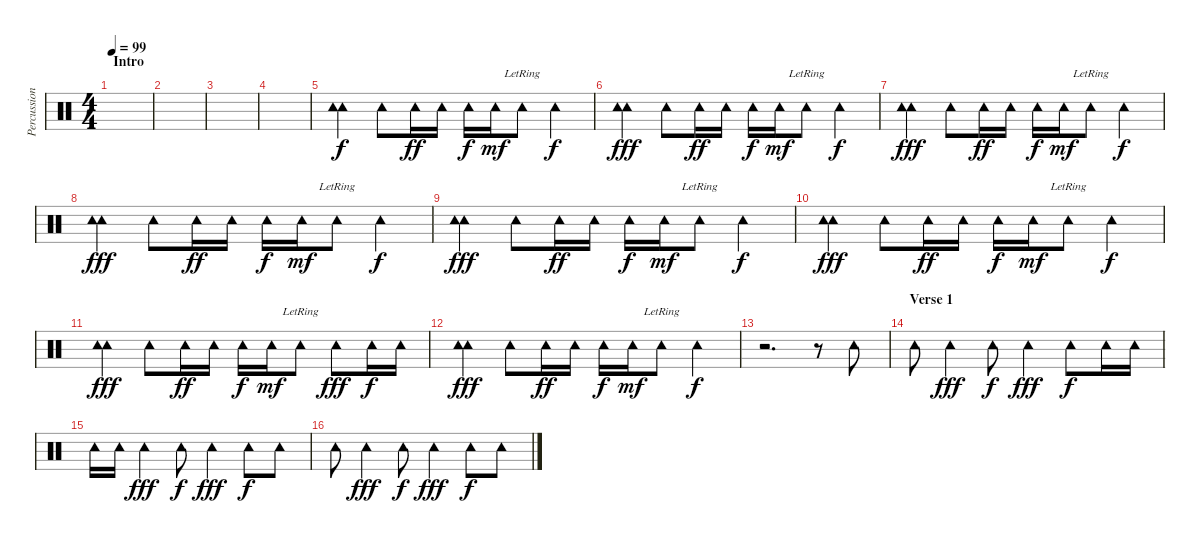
\track ("Percussion" "Percussion") {instrument percussion}
\staff {score}
\articulation defaults
\ts (4 4)
\section ("" "Intro")
\tempo 99
\clef neutral
\ks c
|
|
|
|
("Tambourine (hit)" "Tambourine (hit)").4{bd 60} "Tambourine (hit)".8 "Tambourine (hit)".16{dy ff} "Tambourine (hit)".16 "Tambourine (hit)".16{dy f} "Tambourine (hit)".16{dy mf} "Tambourine (hit)"{lr}.8 "Tambourine (hit)".4{dy f} |
("Tambourine (hit)" "Tambourine (hit)").4{bd 60 dy fff} "Tambourine (hit)".8 "Tambourine (hit)".16{dy ff} "Tambourine (hit)".16 "Tambourine (hit)".16{dy f} "Tambourine (hit)".16{dy mf} "Tambourine (hit)"{lr}.8 "Tambourine (hit)".4{dy f} |
("Tambourine (hit)" "Tambourine (hit)").4{bd 60 dy fff} "Tambourine (hit)".8 "Tambourine (hit)".16{dy ff} "Tambourine (hit)".16 "Tambourine (hit)".16{dy f} "Tambourine (hit)".16{dy mf} "Tambourine (hit)"{lr}.8 "Tambourine (hit)".4{dy f} |
("Tambourine (hit)" "Tambourine (hit)").4{bd 60 dy fff} "Tambourine (hit)".8 "Tambourine (hit)".16{dy ff} "Tambourine (hit)".16 "Tambourine (hit)".16{dy f} "Tambourine (hit)".16{dy mf} "Tambourine (hit)"{lr}.8 "Tambourine (hit)".4{dy f} |
("Tambourine (hit)" "Tambourine (hit)").4{bd 60 dy fff} "Tambourine (hit)".8 "Tambourine (hit)".16{dy ff} "Tambourine (hit)".16 "Tambourine (hit)".16{dy f} "Tambourine (hit)".16{dy mf} "Tambourine (hit)"{lr}.8 "Tambourine (hit)".4{dy f} |
("Tambourine (hit)" "Tambourine (hit)").4{bd 60 dy fff} "Tambourine (hit)".8 "Tambourine (hit)".16{dy ff} "Tambourine (hit)".16 "Tambourine (hit)".16{dy f} "Tambourine (hit)".16{dy mf} "Tambourine (hit)"{lr}.8 "Tambourine (hit)".4{dy f} |
("Tambourine (hit)" "Tambourine (hit)").4{bd 60 dy fff} "Tambourine (hit)".8 "Tambourine (hit)".16{dy ff} "Tambourine (hit)".16 "Tambourine (hit)".16{dy f} "Tambourine (hit)".16{dy mf} "Tambourine (hit)"{lr}.8 "Tambourine (hit)".8{dy fff} "Tambourine (hit)".16{dy f} "Tambourine (hit)".16 |
("Tambourine (hit)" "Tambourine (hit)").4{bd 60 dy fff} "Tambourine (hit)".8 "Tambourine (hit)".16{dy ff} "Tambourine (hit)".16 "Tambourine (hit)".16{dy f} "Tambourine (hit)".16{dy mf} "Tambourine (hit)"{lr}.8 "Tambourine (hit)".4{dy f} |
r.2{d volume 4} r.8 "Tambourine (hit)".8 |
\section ("" "Verse 1")
"Tambourine (hit)".8 "Tambourine (hit)".4{dy fff} "Tambourine (hit)".8{dy f} "Tambourine (hit)".4{dy fff} "Tambourine (hit)".8{dy f} "Tambourine (hit)".16 "Tambourine (hit)".16 |
"Tambourine (hit)".16 "Tambourine (hit)".16 "Tambourine (hit)".4{dy fff} "Tambourine (hit)".8{dy f} "Tambourine (hit)".4{dy fff} "Tambourine (hit)".8{dy f} "Tambourine (hit)".8 |
"Tambourine (hit)".8 "Tambourine (hit)".4{dy fff} "Tambourine (hit)".8{dy f} "Tambourine (hit)".4{dy fff} "Tambourine (hit)".8{dy f} "Tambourine (hit)".8
